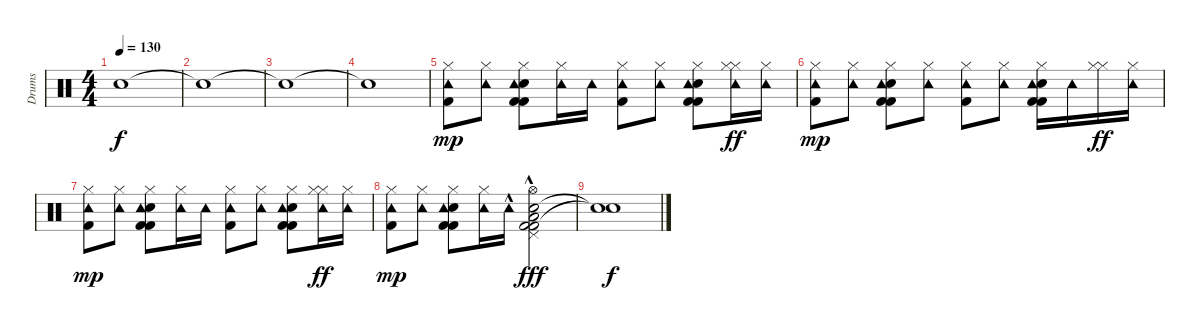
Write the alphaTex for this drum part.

\track ("Drums" "Drums") {instrument percussion}
\staff {score}
\articulation defaults
\ts (4 4)
\tempo 130
\clef neutral
\ks c "Snare (hit)"{t}.1{dy f}
|
"Snare (hit)"{t}.1 |
"Snare (hit)"{t}.1 |
"Snare (hit)"{t}.1 |
("Kick (hit) 2" "Hi-Hat (closed)" "Tambourine (hit)").8{dy mp} ("Hi-Hat (closed)" "Tambourine (hit)").8 ("Kick (hit) 2" "Kick (hit) 2" "Snare (hit) 2" "Hi-Hat (closed)" "Tambourine (hit)").8 ("Hi-Hat (closed)" "Tambourine (hit)").16 "Tambourine (hit)".16 ("Kick (hit) 2" "Hi-Hat (closed)" "Tambourine (hit)").8 ("Hi-Hat (closed)" "Tambourine (hit)").8 ("Kick (hit) 2" "Snare (hit) 2" "Kick (hit) 2" "Hi-Hat (closed)" "Tambourine (hit)").8 ("Hi-Hat (closed)" "Tambourine (hit)" "Hi-Hat (closed)").16{dy ff} ("Tambourine (hit)" "Hi-Hat (closed)").16 |
("Kick (hit) 2" "Hi-Hat (closed)" "Tambourine (hit)").8{dy mp} ("Hi-Hat (closed)" "Tambourine (hit)").8 ("Kick (hit) 2" "Snare (hit) 2" "Kick (hit) 2" "Hi-Hat (closed)" "Tambourine (hit)").8 ("Hi-Hat (closed)" "Tambourine (hit)").8 ("Kick (hit) 2" "Hi-Hat (closed)" "Tambourine (hit)").8 ("Hi-Hat (closed)" "Tambourine (hit)").8 ("Kick (hit) 2" "Snare (hit) 2" "Kick (hit) 2" "Hi-Hat (closed)" "Tambourine (hit)").16 "Tambourine (hit)".16 ("Hi-Hat (closed)" "Hi-Hat (closed)").16{dy ff} ("Tambourine (hit)" "Hi-Hat (closed)").16 |
("Kick (hit) 2" "Hi-Hat (closed)" "Tambourine (hit)").8{dy mp} ("Hi-Hat (closed)" "Tambourine (hit)").8 ("Kick (hit) 2" "Snare (hit) 2" "Kick (hit) 2" "Hi-Hat (closed)" "Tambourine (hit)").8 ("Hi-Hat (closed)" "Tambourine (hit)").16 "Tambourine (hit)".16 ("Kick (hit) 2" "Hi-Hat (closed)" "Tambourine (hit)").8 ("Hi-Hat (closed)" "Tambourine (hit)").8 ("Kick (hit) 2" "Snare (hit) 2" "Kick (hit) 2" "Hi-Hat (closed)" "Tambourine (hit)").8 ("Hi-Hat (closed)" "Tambourine (hit)" "Hi-Hat (closed)").16{dy ff} ("Tambourine (hit)" "Hi-Hat (closed)").16 |
("Kick (hit) 2" "Hi-Hat (closed)" "Tambourine (hit)").8{dy mp} ("Hi-Hat (closed)" "Tambourine (hit)").8 ("Kick (hit) 2" "Snare (hit) 2" "Kick (hit) 2" "Hi-Hat (closed)" "Tambourine (hit)").8 ("Hi-Hat (closed)" "Tambourine (hit)").16 "Tambourine (hit)"{hac}.16 ("Kick (hit) 2" "Snare (hit) 2" "Kick (hit) 2" "Hi-Hat (open)" "Pedal Hi-Hat (hit)" "Low Floor Tom (hit)"{hac}).2{dy fff} |
("Snare (hit)"{t} "Snare (hit)"{t}).1{dy f}
